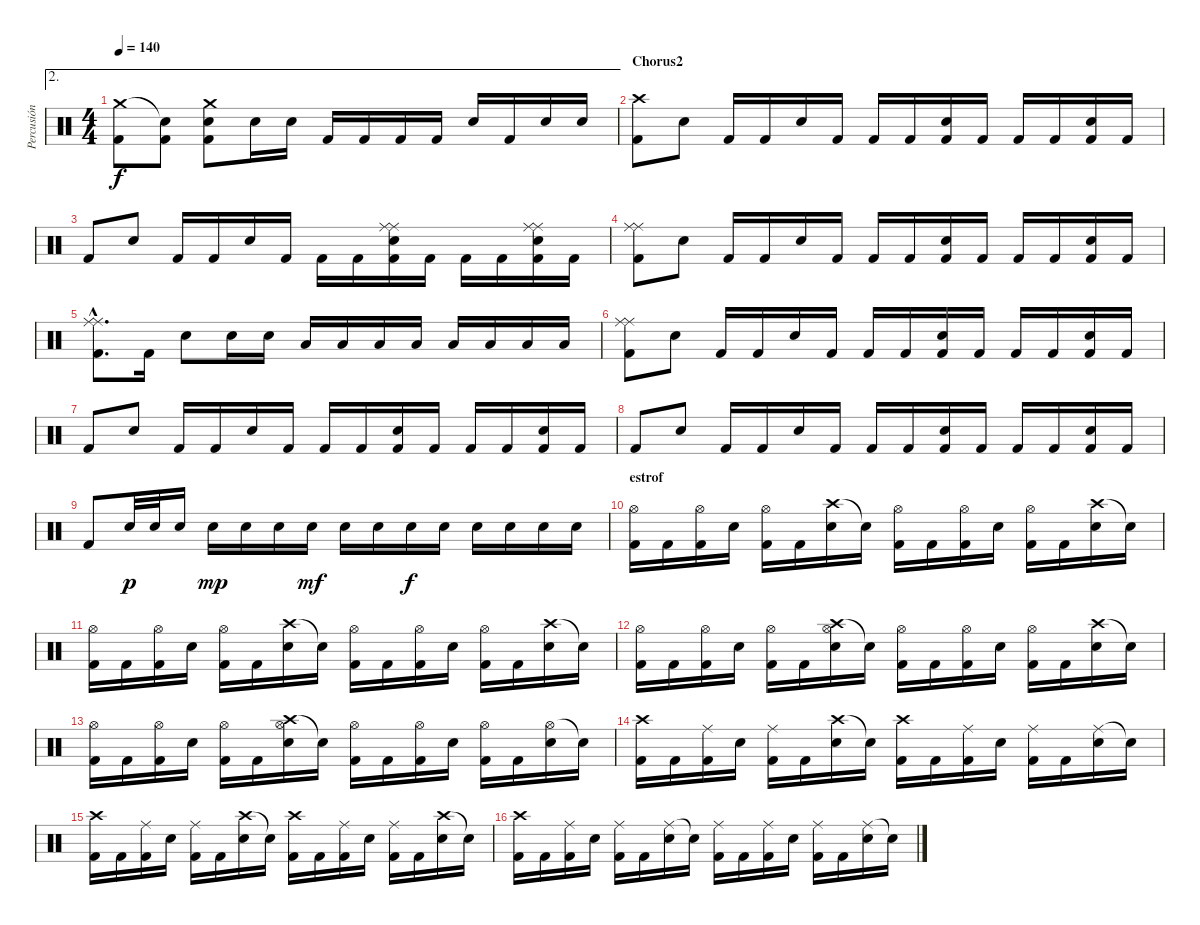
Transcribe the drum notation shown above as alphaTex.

\track ("Percusión" "Percusión") {instrument percussion}
\staff {score}
\articulation defaults
\ae 2
\ts (4 4)
\tempo 140
\clef neutral
\ks c
("Crash medium (hit)" "Kick (hit) 2").8{dy f} ("Snare (hit)"{t} "Kick (hit) 2").8 ("Crash medium (hit)" "Electric Snare (hit)" "Kick (hit) 2").8 "Electric Snare (hit)".16 "Electric Snare (hit)".16 "Kick (hit) 2".16 "Kick (hit) 2".16 "Kick (hit) 2".16 "Kick (hit) 2".16 "Electric Snare (hit)".16 "Kick (hit) 2".16 "Electric Snare (hit)".16 "Electric Snare (hit)".16 |
\section ("" "Chorus2")
("Crash high (hit)" "Kick (hit) 2").8 "Electric Snare (hit)".8 "Kick (hit) 2".16 "Kick (hit) 2".16 "Electric Snare (hit)".16 "Kick (hit) 2".16 "Kick (hit) 2".16 "Kick (hit) 2".16 ("Electric Snare (hit)" "Kick (hit) 2").16 "Kick (hit) 2".16 "Kick (hit) 2".16 "Kick (hit) 2".16 ("Electric Snare (hit)" "Kick (hit) 2").16 "Kick (hit) 2".16 |
"Kick (hit) 2".8 "Electric Snare (hit)".8 "Kick (hit) 2".16 "Kick (hit) 2".16 "Electric Snare (hit)".16 "Kick (hit) 2".16 "Kick (hit) 2".16 "Kick (hit) 2".16 ("Ride (middle)" "Ride (middle)" "Electric Snare (hit)" "Kick (hit) 2").16 "Kick (hit) 2".16 "Kick (hit) 2".16 "Kick (hit) 2".16 ("Ride (middle)" "Ride (middle)" "Electric Snare (hit)" "Kick (hit) 2").16 "Kick (hit) 2".16 |
("Ride (middle)" "Ride (middle)" "Kick (hit) 2").8 "Electric Snare (hit)".8 "Kick (hit) 2".16 "Kick (hit) 2".16 "Electric Snare (hit)".16 "Kick (hit) 2".16 "Kick (hit) 2".16 "Kick (hit) 2".16 ("Electric Snare (hit)" "Kick (hit) 2").16 "Kick (hit) 2".16 "Kick (hit) 2".16 "Kick (hit) 2".16 ("Electric Snare (hit)" "Kick (hit) 2").16 "Kick (hit) 2".16 |
("Ride (middle)"{hac} "Ride (middle)"{hac} "Kick (hit) 2"{hac}).8{d} "Kick (hit) 2".16 "Electric Snare (hit)".8 "Electric Snare (hit)".16 "Electric Snare (hit)".16 "Low Floor Tom (hit)".16 "Low Floor Tom (hit)".16 "Low Floor Tom (hit)".16 "Low Floor Tom (hit)".16 "Low Floor Tom (hit)".16 "Low Floor Tom (hit)".16 "Low Floor Tom (hit)".16 "Low Floor Tom (hit)".16 |
("Ride (middle)" "Ride (middle)" "Kick (hit) 2").8 "Electric Snare (hit)".8 "Kick (hit) 2".16 "Kick (hit) 2".16 "Electric Snare (hit)".16 "Kick (hit) 2".16 "Kick (hit) 2".16 "Kick (hit) 2".16 ("Electric Snare (hit)" "Kick (hit) 2").16 "Kick (hit) 2".16 "Kick (hit) 2".16 "Kick (hit) 2".16 ("Electric Snare (hit)" "Kick (hit) 2").16 "Kick (hit) 2".16 |
"Kick (hit) 2".8 "Electric Snare (hit)".8 "Kick (hit) 2".16 "Kick (hit) 2".16 "Electric Snare (hit)".16 "Kick (hit) 2".16 "Kick (hit) 2".16 "Kick (hit) 2".16 ("Electric Snare (hit)" "Kick (hit) 2").16 "Kick (hit) 2".16 "Kick (hit) 2".16 "Kick (hit) 2".16 ("Electric Snare (hit)" "Kick (hit) 2").16 "Kick (hit) 2".16 |
"Kick (hit) 2".8 "Electric Snare (hit)".8 "Kick (hit) 2".16 "Kick (hit) 2".16 "Electric Snare (hit)".16 "Kick (hit) 2".16 "Kick (hit) 2".16 "Kick (hit) 2".16 ("Electric Snare (hit)" "Kick (hit) 2").16 "Kick (hit) 2".16 "Kick (hit) 2".16 "Kick (hit) 2".16 ("Electric Snare (hit)" "Kick (hit) 2").16 "Kick (hit) 2".16 |
"Kick (hit) 2".8 "Electric Snare (hit)".32{dy p} "Electric Snare (hit)".32 "Electric Snare (hit)".16 "Electric Snare (hit)".16{dy mp} "Electric Snare (hit)".16 "Electric Snare (hit)".16 "Electric Snare (hit)".16{dy mf} "Electric Snare (hit)".16 "Electric Snare (hit)".16 "Electric Snare (hit)".16{dy f} "Electric Snare (hit)".16 "Electric Snare (hit)".16 "Electric Snare (hit)".16 "Electric Snare (hit)".16 "Electric Snare (hit)".16 |
\section ("" "estrof")
("Hi-Hat (open)" "Kick (hit) 2").16 "Kick (hit) 2".16 ("Hi-Hat (open)" "Kick (hit) 2").16 "Electric Snare (hit)".16 ("Hi-Hat (open)" "Kick (hit) 2").16 "Kick (hit) 2".16 ("Crash high (hit)" "Electric Snare (hit)").16 "Snare (hit)"{t}.16 ("Hi-Hat (open)" "Kick (hit) 2").16 "Kick (hit) 2".16 ("Hi-Hat (open)" "Kick (hit) 2").16 "Electric Snare (hit)".16 ("Hi-Hat (open)" "Kick (hit) 2").16 "Kick (hit) 2".16 ("Crash high (hit)" "Electric Snare (hit)").16 "Snare (hit)"{t}.16 |
("Hi-Hat (open)" "Kick (hit) 2").16 "Kick (hit) 2".16 ("Hi-Hat (open)" "Kick (hit) 2").16 "Electric Snare (hit)".16 ("Hi-Hat (open)" "Kick (hit) 2").16 "Kick (hit) 2".16 ("Crash high (hit)" "Electric Snare (hit)").16 "Snare (hit)"{t}.16 ("Hi-Hat (open)" "Kick (hit) 2").16 "Kick (hit) 2".16 ("Hi-Hat (open)" "Kick (hit) 2").16 "Electric Snare (hit)".16 ("Hi-Hat (open)" "Kick (hit) 2").16 "Kick (hit) 2".16 ("Crash high (hit)" "Electric Snare (hit)").16 "Snare (hit)"{t}.16 |
("Hi-Hat (open)" "Kick (hit) 2").16 "Kick (hit) 2".16 ("Hi-Hat (open)" "Kick (hit) 2").16 "Electric Snare (hit)".16 ("Hi-Hat (open)" "Kick (hit) 2").16 "Kick (hit) 2".16 ("Crash high (hit)" "Hi-Hat (open)" "Electric Snare (hit)").16 "Snare (hit)"{t}.16 ("Hi-Hat (open)" "Kick (hit) 2").16 "Kick (hit) 2".16 ("Hi-Hat (open)" "Kick (hit) 2").16 "Electric Snare (hit)".16 ("Hi-Hat (open)" "Kick (hit) 2").16 "Kick (hit) 2".16 ("Crash high (hit)" "Electric Snare (hit)").16 "Snare (hit)"{t}.16 |
("Hi-Hat (open)" "Kick (hit) 2").16 "Kick (hit) 2".16 ("Hi-Hat (open)" "Kick (hit) 2").16 "Electric Snare (hit)".16 ("Hi-Hat (open)" "Kick (hit) 2").16 "Kick (hit) 2".16 ("Crash high (hit)" "Hi-Hat (open)" "Electric Snare (hit)").16 "Snare (hit)"{t}.16 ("Hi-Hat (open)" "Kick (hit) 2").16 "Kick (hit) 2".16 ("Hi-Hat (open)" "Kick (hit) 2").16 "Electric Snare (hit)".16 ("Hi-Hat (open)" "Kick (hit) 2").16 "Kick (hit) 2".16 ("Hi-Hat (open)" "Electric Snare (hit)").16 "Snare (hit)"{t}.16 |
("Crash high (hit)" "Kick (hit) 2").16 "Kick (hit) 2".16 ("Ride (middle)" "Kick (hit) 2").16 "Electric Snare (hit)".16 ("Ride (middle)" "Kick (hit) 2").16 "Kick (hit) 2".16 ("Crash high (hit)" "Electric Snare (hit)").16 "Snare (hit)"{t}.16 ("Crash high (hit)" "Kick (hit) 2").16 "Kick (hit) 2".16 ("Ride (middle)" "Kick (hit) 2").16 "Electric Snare (hit)".16 ("Ride (middle)" "Kick (hit) 2").16 "Kick (hit) 2".16 ("Ride (middle)" "Electric Snare (hit)").16 "Snare (hit)"{t}.16 |
("Crash high (hit)" "Kick (hit) 2").16 "Kick (hit) 2".16 ("Ride (middle)" "Kick (hit) 2").16 "Electric Snare (hit)".16 ("Ride (middle)" "Kick (hit) 2").16 "Kick (hit) 2".16 ("Crash high (hit)" "Electric Snare (hit)").16 "Snare (hit)"{t}.16 ("Crash high (hit)" "Kick (hit) 2").16 "Kick (hit) 2".16 ("Ride (middle)" "Kick (hit) 2").16 "Electric Snare (hit)".16 ("Ride (middle)" "Kick (hit) 2").16 "Kick (hit) 2".16 ("Crash high (hit)" "Electric Snare (hit)").16 "Snare (hit)"{t}.16 |
("Crash high (hit)" "Kick (hit) 2").16 "Kick (hit) 2".16 ("Ride (middle)" "Kick (hit) 2").16 "Electric Snare (hit)".16 ("Ride (middle)" "Kick (hit) 2").16 "Kick (hit) 2".16 ("Ride (middle)" "Electric Snare (hit)").16 "Snare (hit)"{t}.16 ("Ride (middle)" "Kick (hit) 2").16 "Kick (hit) 2".16 ("Ride (middle)" "Kick (hit) 2").16 "Electric Snare (hit)".16 ("Ride (middle)" "Kick (hit) 2").16 "Kick (hit) 2".16 ("Ride (middle)" "Electric Snare (hit)").16 "Snare (hit)"{t}.16
